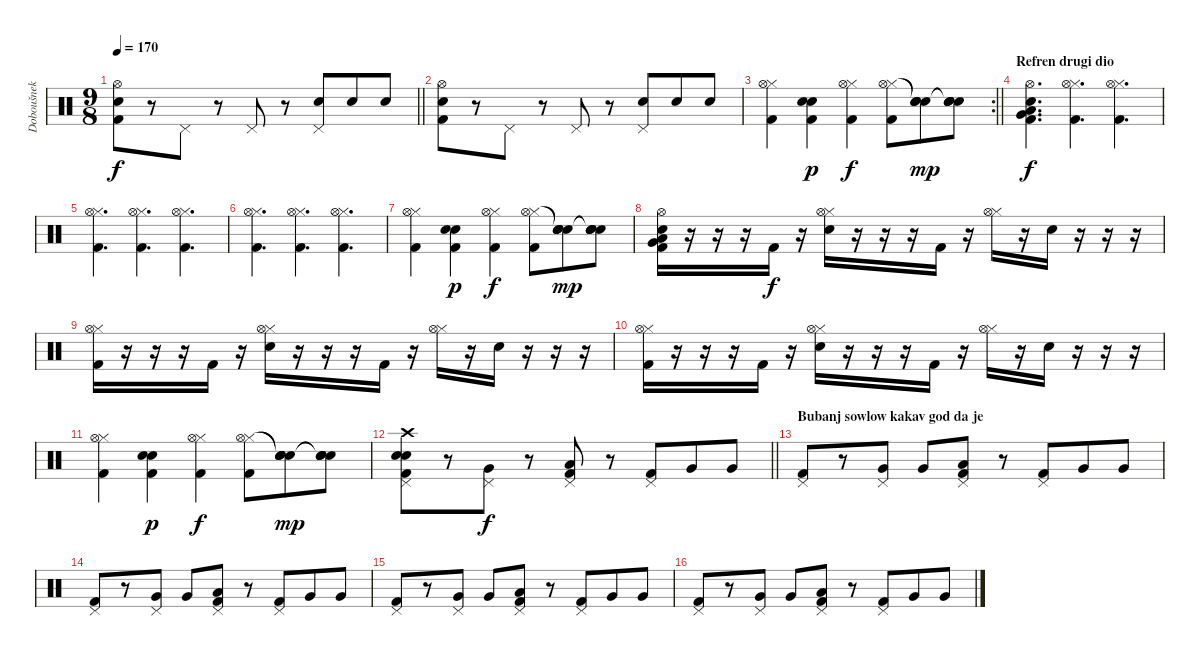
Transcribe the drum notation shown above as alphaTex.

\track ("Doboušnek" "Doboušnek") {instrument percussion}
\staff {score}
\articulation defaults
\ts (9 8)
\tempo 170
\clef neutral
\barLineRight lightlight
\ks c
("Hi-Hat (open)" "Electric Snare (hit)" "Kick (hit) 2").8{dy f} r.8 "Pedal Hi-Hat (hit)".8 r.8 "Pedal Hi-Hat (hit)".8 r.8 ("Pedal Hi-Hat (hit)" "Electric Snare (hit)").8 "Electric Snare (hit)".8 "Electric Snare (hit)".8 |
("Hi-Hat (open)" "Electric Snare (hit)" "Kick (hit) 2").8 r.8 "Pedal Hi-Hat (hit)".8 r.8 "Pedal Hi-Hat (hit)".8 r.8 ("Pedal Hi-Hat (hit)" "Electric Snare (hit)").8 "Electric Snare (hit)".8 "Electric Snare (hit)".8 |
\rc 2
\barLineRight lightlight
("Hi-Hat (closed)" "Hi-Hat (open)" "Kick (hit) 2").4 ("Snare (hit) 2" "Electric Snare (hit)" "Kick (hit) 2").4{dy p} ("Hi-Hat (closed)" "Hi-Hat (open)" "Kick (hit) 2").4{dy f} ("Hi-Hat (closed)" "Hi-Hat (open)" "Kick (hit) 2").8 ("Snare (hit)"{t} "Snare (hit)"{t} "Electric Snare (hit)" "Snare (hit) 2").8{dy mp} ("Snare (hit)"{t} "Snare (hit)"{t} "Electric Snare (hit)" "Snare (hit) 2").8 |
\section ("" "Refren drugi dio")
("Hi-Hat (open)" "Very Low Tom (hit)" "Low Floor Tom (hit)" "Electric Snare (hit)" "Kick (hit) 2").4{d dy f} ("Hi-Hat (closed)" "Hi-Hat (open)" "Kick (hit) 2").4{d} ("Hi-Hat (closed)" "Hi-Hat (open)" "Kick (hit) 2").4{d} |
("Hi-Hat (closed)" "Hi-Hat (open)" "Kick (hit) 2").4{d} ("Hi-Hat (closed)" "Hi-Hat (open)" "Kick (hit) 2").4{d} ("Hi-Hat (closed)" "Hi-Hat (open)" "Kick (hit) 2").4{d} |
("Hi-Hat (closed)" "Hi-Hat (open)" "Kick (hit) 2").4{d} ("Hi-Hat (closed)" "Hi-Hat (open)" "Kick (hit) 2").4{d} ("Hi-Hat (closed)" "Hi-Hat (open)" "Kick (hit) 2").4{d} |
("Hi-Hat (closed)" "Hi-Hat (open)" "Kick (hit) 2").4 ("Snare (hit) 2" "Electric Snare (hit)" "Kick (hit) 2").4{dy p} ("Hi-Hat (closed)" "Hi-Hat (open)" "Kick (hit) 2").4{dy f} ("Hi-Hat (closed)" "Hi-Hat (open)" "Kick (hit) 2").8 ("Snare (hit)"{t} "Snare (hit)"{t} "Electric Snare (hit)" "Snare (hit) 2").8{dy mp} ("Snare (hit)"{t} "Snare (hit)"{t} "Electric Snare (hit)" "Snare (hit) 2").8 |
("Hi-Hat (open)" "Electric Snare (hit)" "Low Floor Tom (hit)" "Very Low Tom (hit)" "Kick (hit) 2").16 r.16 r.16 r.16 "Kick (hit) 2".16{dy f} r.16 ("Hi-Hat (closed)" "Hi-Hat (open)" "Electric Snare (hit)").16 r.16 r.16 r.16 "Kick (hit) 2".16 r.16 ("Hi-Hat (closed)" "Hi-Hat (open)").16 r.16 "Electric Snare (hit)".16 r.16 r.16 r.16 |
("Hi-Hat (closed)" "Hi-Hat (open)" "Kick (hit) 2").16 r.16 r.16 r.16 "Kick (hit) 2".16 r.16 ("Hi-Hat (closed)" "Hi-Hat (open)" "Electric Snare (hit)").16 r.16 r.16 r.16 "Kick (hit) 2".16 r.16 ("Hi-Hat (closed)" "Hi-Hat (open)").16 r.16 "Electric Snare (hit)".16 r.16 r.16 r.16 |
("Hi-Hat (closed)" "Hi-Hat (open)" "Kick (hit) 2").16 r.16 r.16 r.16 "Kick (hit) 2".16 r.16 ("Hi-Hat (closed)" "Hi-Hat (open)" "Electric Snare (hit)").16 r.16 r.16 r.16 "Kick (hit) 2".16 r.16 ("Hi-Hat (closed)" "Hi-Hat (open)").16 r.16 "Electric Snare (hit)".16 r.16 r.16 r.16 |
("Hi-Hat (closed)" "Hi-Hat (open)" "Kick (hit) 2").4 ("Snare (hit) 2" "Electric Snare (hit)" "Kick (hit) 2").4{dy p} ("Hi-Hat (closed)" "Hi-Hat (open)" "Kick (hit) 2").4{dy f} ("Hi-Hat (closed)" "Hi-Hat (open)" "Kick (hit) 2").8 ("Snare (hit)"{t} "Snare (hit)"{t} "Electric Snare (hit)" "Snare (hit) 2").8{dy mp} ("Snare (hit)"{t} "Snare (hit)"{t} "Electric Snare (hit)" "Snare (hit) 2").8 |
\barLineRight lightlight
("Crash high (hit)" "Pedal Hi-Hat (hit)" "Electric Snare (hit)" "Snare (hit) 2" "Kick (hit) 2").8 r.8 ("Pedal Hi-Hat (hit)" "Very Low Tom (hit)").8{dy f} r.8 ("Pedal Hi-Hat (hit)" "Low Tom (hit)" "Kick (hit) 2").8 r.8 ("Pedal Hi-Hat (hit)" "Kick (hit) 2").8 "Very Low Tom (hit)".8 "Very Low Tom (hit)".8 |
\section ("" "Bubanj sowlow kakav god da je")
("Pedal Hi-Hat (hit)" "Kick (hit) 2").8 r.8 ("Pedal Hi-Hat (hit)" "Very Low Tom (hit)").8 "Very Low Tom (hit)".8 ("Pedal Hi-Hat (hit)" "Low Tom (hit)" "Kick (hit) 2").8 r.8 ("Pedal Hi-Hat (hit)" "Kick (hit) 2").8 "Very Low Tom (hit)".8 "Very Low Tom (hit)".8 |
("Pedal Hi-Hat (hit)" "Kick (hit) 2").8 r.8 ("Pedal Hi-Hat (hit)" "Very Low Tom (hit)").8 "Very Low Tom (hit)".8 ("Pedal Hi-Hat (hit)" "Low Tom (hit)" "Kick (hit) 2").8 r.8 ("Pedal Hi-Hat (hit)" "Kick (hit) 2").8 "Very Low Tom (hit)".8 "Very Low Tom (hit)".8 |
("Pedal Hi-Hat (hit)" "Kick (hit) 2").8 r.8 ("Pedal Hi-Hat (hit)" "Very Low Tom (hit)").8 "Very Low Tom (hit)".8 ("Pedal Hi-Hat (hit)" "Low Tom (hit)" "Kick (hit) 2").8 r.8 ("Pedal Hi-Hat (hit)" "Kick (hit) 2").8 "Very Low Tom (hit)".8 "Very Low Tom (hit)".8 |
("Pedal Hi-Hat (hit)" "Kick (hit) 2").8 r.8 ("Pedal Hi-Hat (hit)" "Very Low Tom (hit)").8 "Very Low Tom (hit)".8 ("Pedal Hi-Hat (hit)" "Low Tom (hit)" "Kick (hit) 2").8 r.8 ("Pedal Hi-Hat (hit)" "Kick (hit) 2").8 "Very Low Tom (hit)".8 "Very Low Tom (hit)".8
